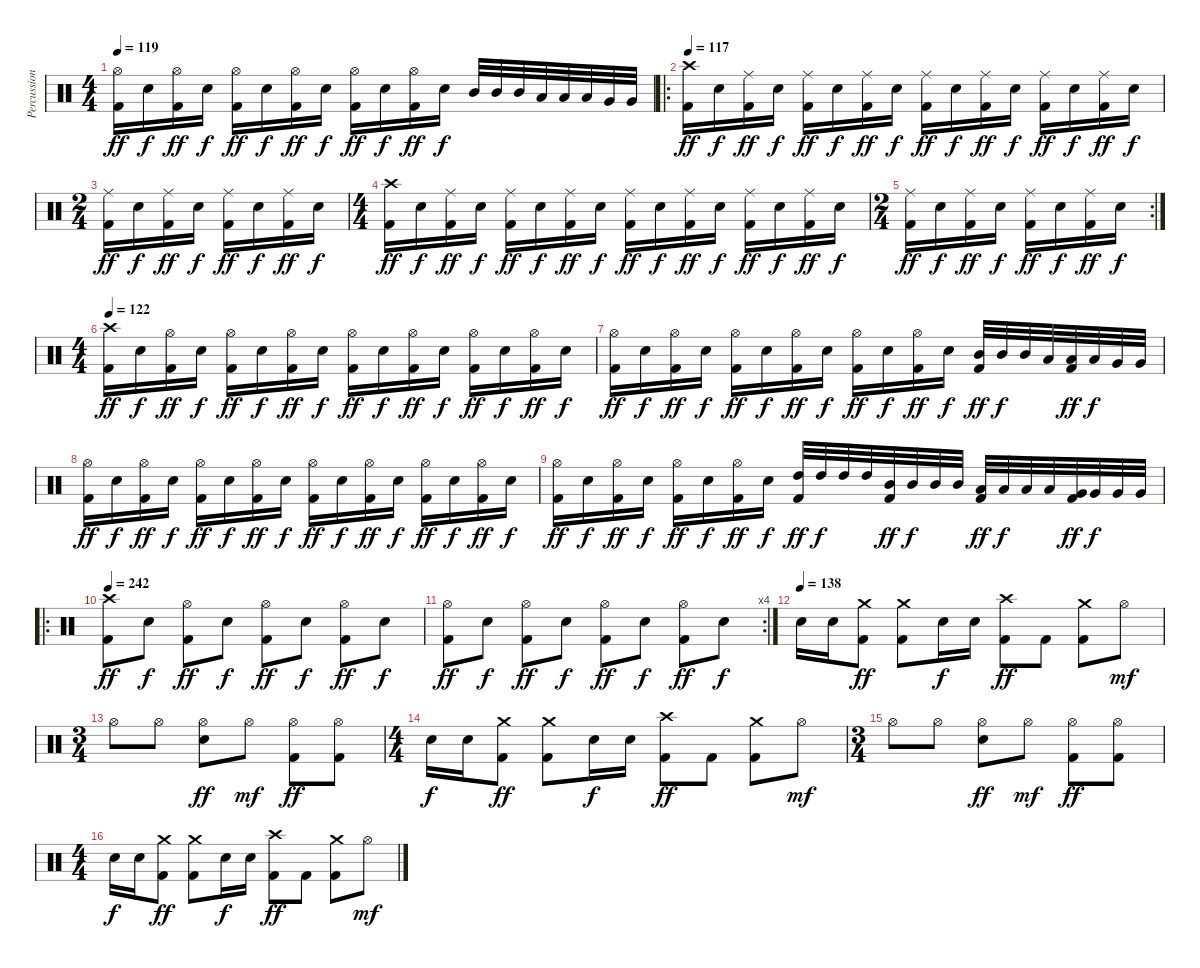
\track ("Percussion" "Percussion") {instrument percussion}
\staff {score}
\articulation defaults
\ts (4 4)
\tempo 119
\clef neutral
\ks c
("Hi-Hat (open)" "Kick (hit) 2").16{dy ff} "Electric Snare (hit)".16{dy f} ("Hi-Hat (open)" "Kick (hit) 2").16{dy ff} "Electric Snare (hit)".16{dy f} ("Hi-Hat (open)" "Kick (hit) 2").16{dy ff} "Electric Snare (hit)".16{dy f} ("Hi-Hat (open)" "Kick (hit) 2").16{dy ff} "Electric Snare (hit)".16{dy f} ("Hi-Hat (open)" "Kick (hit) 2").16{dy ff} "Electric Snare (hit)".16{dy f} ("Hi-Hat (open)" "Kick (hit) 2").16{dy ff} "Electric Snare (hit)".16{dy f} "Mid Tom (hit)".32 "Mid Tom (hit)".32 "Mid Tom (hit)".32 "Low Tom (hit)".32 "Low Tom (hit)".32 "Low Tom (hit)".32 "Very Low Tom (hit)".32 "Very Low Tom (hit)".32 |
\ro
\tempo 117
("Crash high (hit)" "Kick (hit) 2").16{dy ff} "Electric Snare (hit)".16{dy f} ("Ride (middle)" "Kick (hit) 2").16{dy ff} "Electric Snare (hit)".16{dy f} ("Ride (middle)" "Kick (hit) 2").16{dy ff} "Electric Snare (hit)".16{dy f} ("Ride (middle)" "Kick (hit) 2").16{dy ff} "Electric Snare (hit)".16{dy f} ("Ride (middle)" "Kick (hit) 2").16{dy ff} "Electric Snare (hit)".16{dy f} ("Ride (middle)" "Kick (hit) 2").16{dy ff} "Electric Snare (hit)".16{dy f} ("Ride (middle)" "Kick (hit) 2").16{dy ff} "Electric Snare (hit)".16{dy f} ("Ride (middle)" "Kick (hit) 2").16{dy ff} "Electric Snare (hit)".16{dy f} |
\ts (2 4)
("Ride (middle)" "Kick (hit) 2").16{dy ff} "Electric Snare (hit)".16{dy f} ("Ride (middle)" "Kick (hit) 2").16{dy ff} "Electric Snare (hit)".16{dy f} ("Ride (middle)" "Kick (hit) 2").16{dy ff} "Electric Snare (hit)".16{dy f} ("Ride (middle)" "Kick (hit) 2").16{dy ff} "Electric Snare (hit)".16{dy f} |
\ts (4 4)
("Crash high (hit)" "Kick (hit) 2").16{dy ff} "Electric Snare (hit)".16{dy f} ("Ride (middle)" "Kick (hit) 2").16{dy ff} "Electric Snare (hit)".16{dy f} ("Ride (middle)" "Kick (hit) 2").16{dy ff} "Electric Snare (hit)".16{dy f} ("Ride (middle)" "Kick (hit) 2").16{dy ff} "Electric Snare (hit)".16{dy f} ("Ride (middle)" "Kick (hit) 2").16{dy ff} "Electric Snare (hit)".16{dy f} ("Ride (middle)" "Kick (hit) 2").16{dy ff} "Electric Snare (hit)".16{dy f} ("Ride (middle)" "Kick (hit) 2").16{dy ff} "Electric Snare (hit)".16{dy f} ("Ride (middle)" "Kick (hit) 2").16{dy ff} "Electric Snare (hit)".16{dy f} |
\rc 2
\ts (2 4)
("Ride (middle)" "Kick (hit) 2").16{dy ff} "Electric Snare (hit)".16{dy f} ("Ride (middle)" "Kick (hit) 2").16{dy ff} "Electric Snare (hit)".16{dy f} ("Ride (middle)" "Kick (hit) 2").16{dy ff} "Electric Snare (hit)".16{dy f} ("Ride (middle)" "Kick (hit) 2").16{dy ff} "Electric Snare (hit)".16{dy f} |
\ts (4 4)
\tempo 122
("Crash high (hit)" "Kick (hit) 2").16{dy ff} "Electric Snare (hit)".16{dy f} ("Hi-Hat (open)" "Kick (hit) 2").16{dy ff} "Electric Snare (hit)".16{dy f} ("Hi-Hat (open)" "Kick (hit) 2").16{dy ff} "Electric Snare (hit)".16{dy f} ("Hi-Hat (open)" "Kick (hit) 2").16{dy ff} "Electric Snare (hit)".16{dy f} ("Hi-Hat (open)" "Kick (hit) 2").16{dy ff} "Electric Snare (hit)".16{dy f} ("Hi-Hat (open)" "Kick (hit) 2").16{dy ff} "Electric Snare (hit)".16{dy f} ("Hi-Hat (open)" "Kick (hit) 2").16{dy ff} "Electric Snare (hit)".16{dy f} ("Hi-Hat (open)" "Kick (hit) 2").16{dy ff} "Electric Snare (hit)".16{dy f} |
("Hi-Hat (open)" "Kick (hit) 2").16{dy ff} "Electric Snare (hit)".16{dy f} ("Hi-Hat (open)" "Kick (hit) 2").16{dy ff} "Electric Snare (hit)".16{dy f} ("Hi-Hat (open)" "Kick (hit) 2").16{dy ff} "Electric Snare (hit)".16{dy f} ("Hi-Hat (open)" "Kick (hit) 2").16{dy ff} "Electric Snare (hit)".16{dy f} ("Hi-Hat (open)" "Kick (hit) 2").16{dy ff} "Electric Snare (hit)".16{dy f} ("Hi-Hat (open)" "Kick (hit) 2").16{dy ff} "Electric Snare (hit)".16{dy f} ("Mid Tom (hit)" "Kick (hit) 2").32{dy ff} "Mid Tom (hit)".32{dy f} "Mid Tom (hit)".32 "Low Tom (hit)".32 ("Low Tom (hit)" "Kick (hit) 2").32{dy ff} "Low Tom (hit)".32{dy f} "Very Low Tom (hit)".32 "Very Low Tom (hit)".32 |
("Hi-Hat (open)" "Kick (hit) 2").16{dy ff} "Electric Snare (hit)".16{dy f} ("Hi-Hat (open)" "Kick (hit) 2").16{dy ff} "Electric Snare (hit)".16{dy f} ("Hi-Hat (open)" "Kick (hit) 2").16{dy ff} "Electric Snare (hit)".16{dy f} ("Hi-Hat (open)" "Kick (hit) 2").16{dy ff} "Electric Snare (hit)".16{dy f} ("Hi-Hat (open)" "Kick (hit) 2").16{dy ff} "Electric Snare (hit)".16{dy f} ("Hi-Hat (open)" "Kick (hit) 2").16{dy ff} "Electric Snare (hit)".16{dy f} ("Hi-Hat (open)" "Kick (hit) 2").16{dy ff} "Electric Snare (hit)".16{dy f} ("Hi-Hat (open)" "Kick (hit) 2").16{dy ff} "Electric Snare (hit)".16{dy f} |
("Hi-Hat (open)" "Kick (hit) 2").16{dy ff} "Electric Snare (hit)".16{dy f} ("Hi-Hat (open)" "Kick (hit) 2").16{dy ff} "Electric Snare (hit)".16{dy f} ("Hi-Hat (open)" "Kick (hit) 2").16{dy ff} "Electric Snare (hit)".16{dy f} ("Hi-Hat (open)" "Kick (hit) 2").16{dy ff} "Electric Snare (hit)".16{dy f} ("High Tom (hit)" "Kick (hit) 2").32{dy ff} "High Tom (hit)".32{dy f} "High Tom (hit)".32 "High Tom (hit)".32 ("Mid Tom (hit)" "Kick (hit) 2").32{dy ff} "Mid Tom (hit)".32{dy f} "Mid Tom (hit)".32 "Mid Tom (hit)".32 ("Low Tom (hit)" "Kick (hit) 2").32{dy ff} "Low Tom (hit)".32{dy f} "Low Tom (hit)".32 "Low Tom (hit)".32 ("Very Low Tom (hit)" "Kick (hit) 2").32{dy ff} "Very Low Tom (hit)".32{dy f} "Very Low Tom (hit)".32 "Very Low Tom (hit)".32 |
\ro
\tempo 242
("Crash high (hit)" "Kick (hit) 2").8{dy ff} "Electric Snare (hit)".8{dy f} ("Hi-Hat (open)" "Kick (hit) 2").8{dy ff} "Electric Snare (hit)".8{dy f} ("Hi-Hat (open)" "Kick (hit) 2").8{dy ff} "Electric Snare (hit)".8{dy f} ("Hi-Hat (open)" "Kick (hit) 2").8{dy ff} "Electric Snare (hit)".8{dy f} |
\rc 4
("Hi-Hat (open)" "Kick (hit) 2").8{dy ff} "Electric Snare (hit)".8{dy f} ("Hi-Hat (open)" "Kick (hit) 2").8{dy ff} "Electric Snare (hit)".8{dy f} ("Hi-Hat (open)" "Kick (hit) 2").8{dy ff} "Electric Snare (hit)".8{dy f} ("Hi-Hat (open)" "Kick (hit) 2").8{dy ff} "Electric Snare (hit)".8{dy f} |
\tempo (138)
"Electric Snare (hit)".16 "Electric Snare (hit)".16 ("Crash medium (hit)" "Kick (hit) 2").8{dy ff} ("Crash medium (hit)" "Kick (hit) 2").8 "Electric Snare (hit)".16{dy f} "Electric Snare (hit)".16 ("Crash high (hit)" "Kick (hit) 2").8{dy ff} "Kick (hit) 2".8 ("Crash medium (hit)" "Kick (hit) 2").8 "Hi-Hat (open)".8{dy mf} |
\ts (3 4)
"Hi-Hat (open)".8 "Hi-Hat (open)".8 ("Hi-Hat (open)" "Electric Snare (hit)").8{dy ff} "Hi-Hat (open)".8{dy mf} ("Hi-Hat (open)" "Kick (hit) 2").8{dy ff} ("Hi-Hat (open)" "Kick (hit) 2").8 |
\ts (4 4)
"Electric Snare (hit)".16{dy f} "Electric Snare (hit)".16 ("Crash medium (hit)" "Kick (hit) 2").8{dy ff} ("Crash medium (hit)" "Kick (hit) 2").8 "Electric Snare (hit)".16{dy f} "Electric Snare (hit)".16 ("Crash high (hit)" "Kick (hit) 2").8{dy ff} "Kick (hit) 2".8 ("Crash medium (hit)" "Kick (hit) 2").8 "Hi-Hat (open)".8{dy mf} |
\ts (3 4)
"Hi-Hat (open)".8 "Hi-Hat (open)".8 ("Hi-Hat (open)" "Electric Snare (hit)").8{dy ff} "Hi-Hat (open)".8{dy mf} ("Hi-Hat (open)" "Kick (hit) 2").8{dy ff} ("Hi-Hat (open)" "Kick (hit) 2").8 |
\ts (4 4)
"Electric Snare (hit)".16{dy f} "Electric Snare (hit)".16 ("Crash medium (hit)" "Kick (hit) 2").8{dy ff} ("Crash medium (hit)" "Kick (hit) 2").8 "Electric Snare (hit)".16{dy f} "Electric Snare (hit)".16 ("Crash high (hit)" "Kick (hit) 2").8{dy ff} "Kick (hit) 2".8 ("Crash medium (hit)" "Kick (hit) 2").8 "Hi-Hat (open)".8{dy mf}
